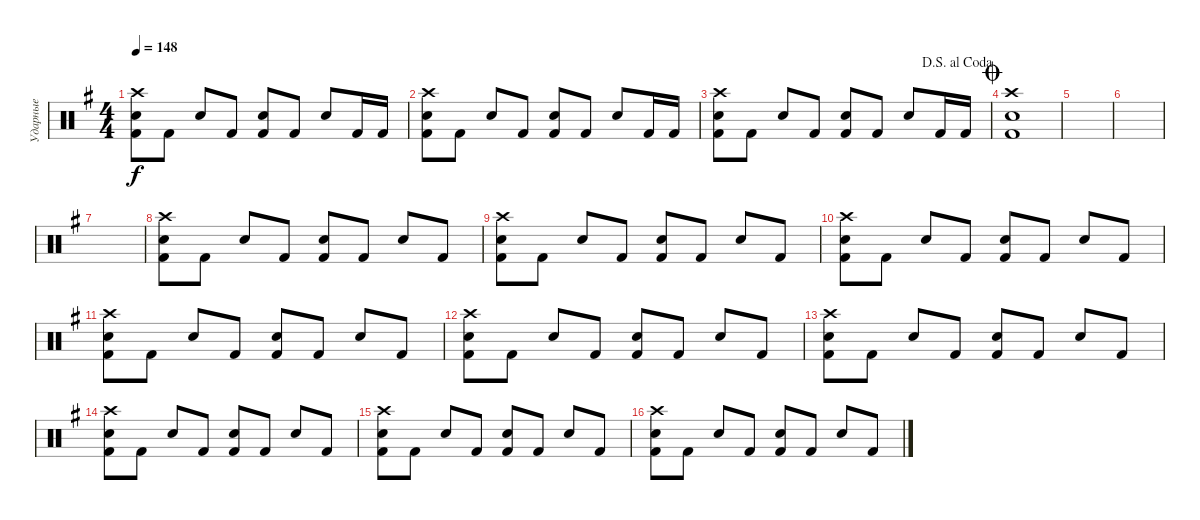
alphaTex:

\track ("Ударные" "Ударные") {instrument percussion}
\staff {score}
\articulation defaults
\ts (4 4)
\tempo 148
\clef neutral
\ks g
("Crash high (hit)" "Snare (hit) 2" "Kick (hit) 2").8{dy f} "Kick (hit) 2".8 "Snare (hit) 2".8 "Kick (hit) 2".8 ("Snare (hit) 2" "Kick (hit) 2").8 "Kick (hit) 2".8 "Snare (hit) 2".8 "Kick (hit) 2".16 "Kick (hit) 2".16 |
("Crash high (hit)" "Snare (hit) 2" "Kick (hit) 2").8 "Kick (hit) 2".8 "Snare (hit) 2".8 "Kick (hit) 2".8 ("Snare (hit) 2" "Kick (hit) 2").8 "Kick (hit) 2".8 "Snare (hit) 2".8 "Kick (hit) 2".16 "Kick (hit) 2".16 |
\jump dalsegnoalcoda
("Crash high (hit)" "Snare (hit) 2" "Kick (hit) 2").8 "Kick (hit) 2".8 "Snare (hit) 2".8 "Kick (hit) 2".8 ("Snare (hit) 2" "Kick (hit) 2").8 "Kick (hit) 2".8 "Snare (hit) 2".8 "Kick (hit) 2".16 "Kick (hit) 2".16 |
\jump coda
("Snare (hit) 2" "Crash high (hit)" "Kick (hit) 2").1 |
|
|
|
("Crash high (hit)" "Snare (hit) 2" "Kick (hit) 2").8 "Kick (hit) 2".8 "Snare (hit) 2".8 "Kick (hit) 2".8 ("Snare (hit) 2" "Kick (hit) 2").8 "Kick (hit) 2".8 "Snare (hit) 2".8 "Kick (hit) 2".8 |
("Crash high (hit)" "Snare (hit) 2" "Kick (hit) 2").8 "Kick (hit) 2".8 "Snare (hit) 2".8 "Kick (hit) 2".8 ("Snare (hit) 2" "Kick (hit) 2").8 "Kick (hit) 2".8 "Snare (hit) 2".8 "Kick (hit) 2".8 |
("Crash high (hit)" "Snare (hit) 2" "Kick (hit) 2").8 "Kick (hit) 2".8 "Snare (hit) 2".8 "Kick (hit) 2".8 ("Snare (hit) 2" "Kick (hit) 2").8 "Kick (hit) 2".8 "Snare (hit) 2".8 "Kick (hit) 2".8 |
("Crash high (hit)" "Snare (hit) 2" "Kick (hit) 2").8 "Kick (hit) 2".8 "Snare (hit) 2".8 "Kick (hit) 2".8 ("Snare (hit) 2" "Kick (hit) 2").8 "Kick (hit) 2".8 "Snare (hit) 2".8 "Kick (hit) 2".8 |
("Crash high (hit)" "Snare (hit) 2" "Kick (hit) 2").8 "Kick (hit) 2".8 "Snare (hit) 2".8 "Kick (hit) 2".8 ("Snare (hit) 2" "Kick (hit) 2").8 "Kick (hit) 2".8 "Snare (hit) 2".8 "Kick (hit) 2".8 |
("Crash high (hit)" "Snare (hit) 2" "Kick (hit) 2").8 "Kick (hit) 2".8 "Snare (hit) 2".8 "Kick (hit) 2".8 ("Snare (hit) 2" "Kick (hit) 2").8 "Kick (hit) 2".8 "Snare (hit) 2".8 "Kick (hit) 2".8 |
("Crash high (hit)" "Snare (hit) 2" "Kick (hit) 2").8 "Kick (hit) 2".8 "Snare (hit) 2".8 "Kick (hit) 2".8 ("Snare (hit) 2" "Kick (hit) 2").8 "Kick (hit) 2".8 "Snare (hit) 2".8 "Kick (hit) 2".8 |
("Crash high (hit)" "Snare (hit) 2" "Kick (hit) 2").8 "Kick (hit) 2".8 "Snare (hit) 2".8 "Kick (hit) 2".8 ("Snare (hit) 2" "Kick (hit) 2").8 "Kick (hit) 2".8 "Snare (hit) 2".8 "Kick (hit) 2".8 |
("Crash high (hit)" "Snare (hit) 2" "Kick (hit) 2").8 "Kick (hit) 2".8 "Snare (hit) 2".8 "Kick (hit) 2".8 ("Snare (hit) 2" "Kick (hit) 2").8 "Kick (hit) 2".8 "Snare (hit) 2".8 "Kick (hit) 2".8
